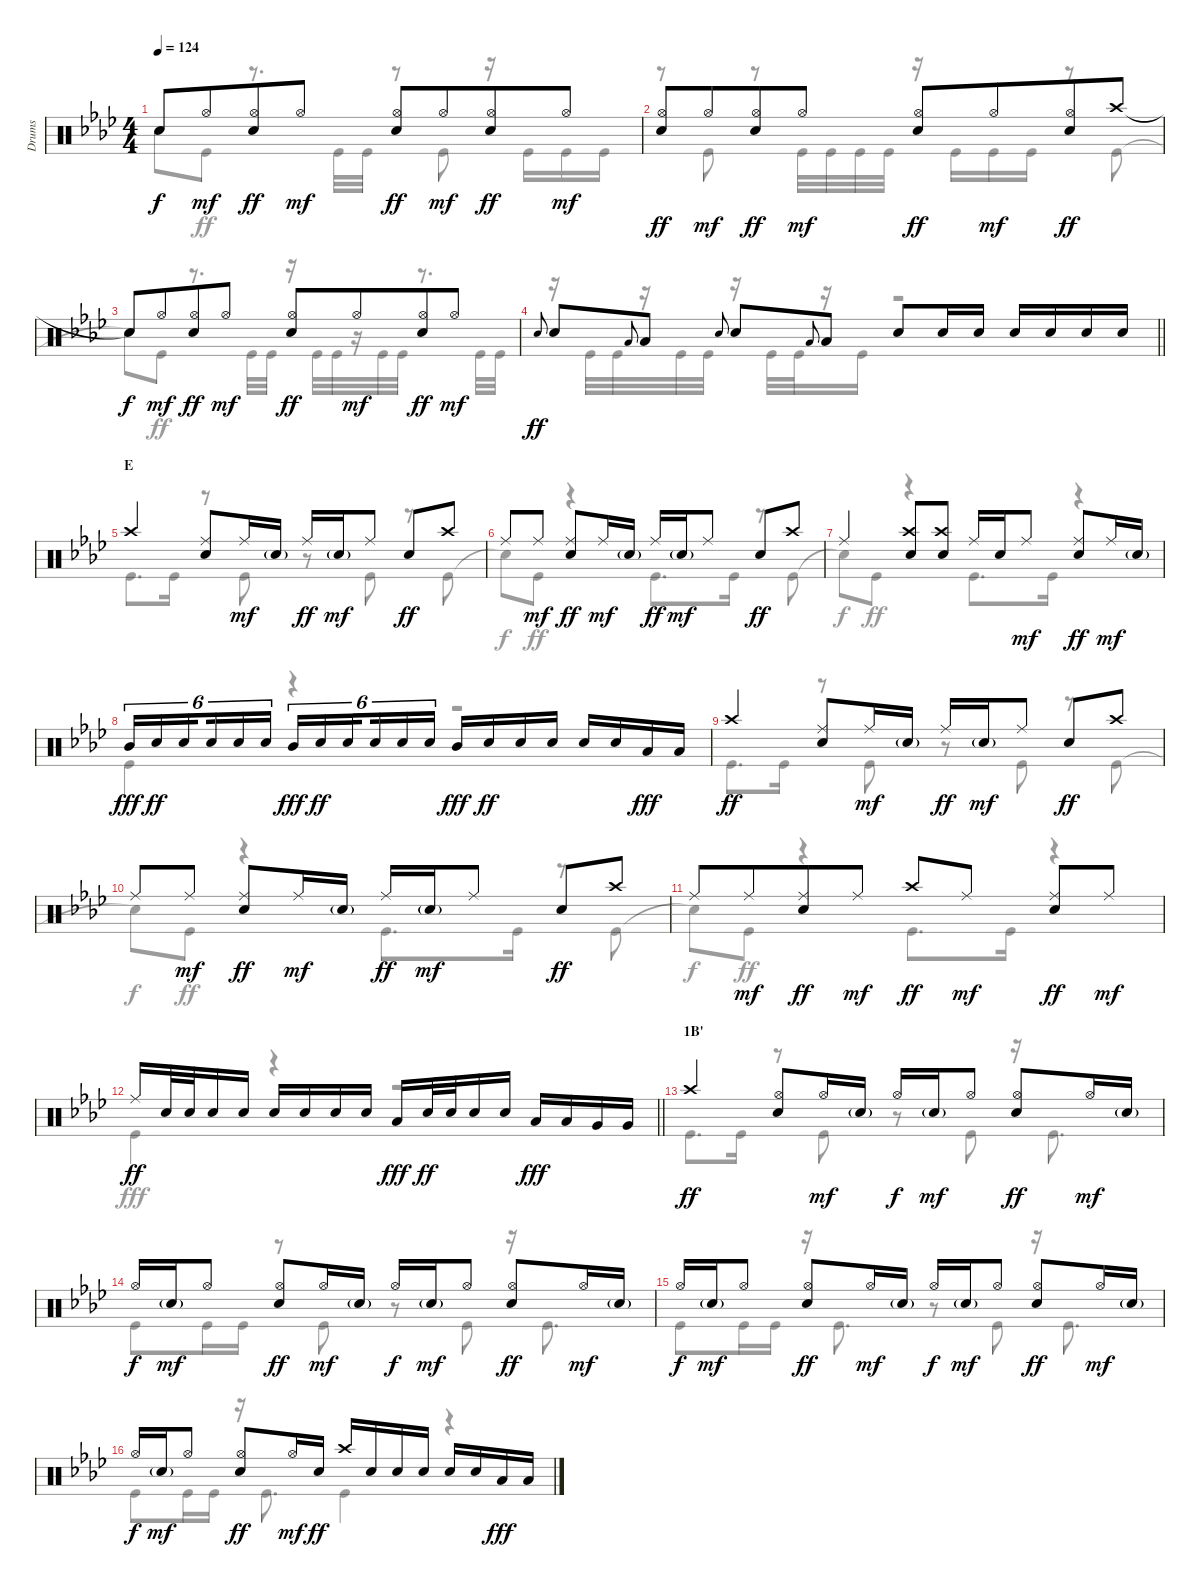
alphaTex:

\track ("Drums" "Drums") {solo instrument percussion}
\staff {score}
\articulation defaults
\voice
\ts (4 4)
\tempo 124
\clef neutral
\ks ab "Snare (hit)"{t}.8{dy f} "Hi-Hat (open)".8{dy mf beam merge}
("Hi-Hat (open)" "Electric Snare (hit)").8{dy ff} "Hi-Hat (open)".8{dy mf} ("Hi-Hat (open)" "Electric Snare (hit)").8{dy ff} "Hi-Hat (open)".8{dy mf beam merge} ("Hi-Hat (open)" "Electric Snare (hit)").8{dy ff} "Hi-Hat (open)".8{dy mf} |
("Hi-Hat (open)" "Electric Snare (hit)").8{dy ff} "Hi-Hat (open)".8{dy mf beam merge} ("Hi-Hat (open)" "Electric Snare (hit)").8{dy ff} "Hi-Hat (open)".8{dy mf} ("Hi-Hat (open)" "Electric Snare (hit)").8{dy ff} "Hi-Hat (open)".8{dy mf beam merge} ("Hi-Hat (open)" "Electric Snare (hit)").8{dy ff} "Crash high (hit)".8 |
"Snare (hit)"{t}.8{dy f} "Hi-Hat (open)".8{dy mf beam merge} ("Hi-Hat (open)" "Electric Snare (hit)").8{dy ff} "Hi-Hat (open)".8{dy mf} ("Hi-Hat (open)" "Electric Snare (hit)").8{dy ff} "Hi-Hat (open)".8{dy mf beam merge} ("Hi-Hat (open)" "Electric Snare (hit)").8{dy ff} "Hi-Hat (open)".8{dy mf} |
\barLineRight lightlight "Electric Snare (hit)".8{gr onbeat dy ff} "Electric Snare (hit)".8 "Low Tom (hit)".8{gr onbeat} "Low Tom (hit)".8 "Electric Snare (hit)".8{gr onbeat beam merge} "Electric Snare (hit)".8 "Low Tom (hit)".8{gr onbeat} "Low Tom (hit)".8 "Electric Snare (hit)".8 "Electric Snare (hit)".16 "Electric Snare (hit)".16 "Electric Snare (hit)".16 "Electric Snare (hit)".16 "Electric Snare (hit)".16 "Electric Snare (hit)".16
|
\section ("" "E")
"Crash high (hit)".4 ("Ride (middle)" "Electric Snare (hit)").8 "Ride (middle)".16{dy mf} "Electric Snare (hit)"{g}.16 "Ride (middle)".16{dy ff} "Electric Snare (hit)"{g}.16{dy mf} "Ride (middle)".8 "Electric Snare (hit)".8{dy ff} "Crash high (hit)".8 |
"Ride (middle)".8 "Ride (middle)".8{dy mf} ("Ride (middle)" "Electric Snare (hit)").8{dy ff} "Ride (middle)".16{dy mf} "Electric Snare (hit)"{g}.16 "Ride (middle)".16{dy ff} "Electric Snare (hit)"{g}.16{dy mf} "Ride (middle)".8 "Electric Snare (hit)".8{dy ff} "Crash high (hit)".8 |
"Ride (middle)".4 ("Crash high (hit)" "Electric Snare (hit)").8 ("Crash high (hit)" "Electric Snare (hit)").8 "Ride (middle)".16 "Electric Snare (hit)".16 "Ride (middle)".8{dy mf} ("Ride (middle)" "Electric Snare (hit)").8{dy ff} "Ride (middle)".16{dy mf} "Electric Snare (hit)"{g}.16 |
"Mid Tom (hit)".16{tu (6 4) dy fff} "Electric Snare (hit)".16{tu (6 4) dy ff} "Electric Snare (hit)".16{tu (6 4) beam splitsecondary} "Electric Snare (hit)".16{tu (6 4)} "Electric Snare (hit)".16{tu (6 4)} "Electric Snare (hit)".16{tu (6 4)} "Mid Tom (hit)".16{tu (6 4) dy fff} "Electric Snare (hit)".16{tu (6 4) dy ff} "Electric Snare (hit)".16{tu (6 4) beam splitsecondary} "Electric Snare (hit)".16{tu (6 4)} "Electric Snare (hit)".16{tu (6 4)} "Electric Snare (hit)".16{tu (6 4)} "Mid Tom (hit)".16{dy fff} "Electric Snare (hit)".16{dy ff} "Electric Snare (hit)".16 "Electric Snare (hit)".16 "Electric Snare (hit)".16 "Electric Snare (hit)".16 "Low Tom (hit)".16{dy fff} "Low Tom (hit)".16 |
"Crash high (hit)".4{dy ff} ("Ride (middle)" "Electric Snare (hit)").8 "Ride (middle)".16{dy mf} "Electric Snare (hit)"{g}.16 "Ride (middle)".16{dy ff} "Electric Snare (hit)"{g}.16{dy mf} "Ride (middle)".8 "Electric Snare (hit)".8{dy ff} "Crash high (hit)".8 |
"Ride (middle)".8 "Ride (middle)".8{dy mf} ("Ride (middle)" "Electric Snare (hit)").8{dy ff} "Ride (middle)".16{dy mf} "Electric Snare (hit)"{g}.16 "Ride (middle)".16{dy ff} "Electric Snare (hit)"{g}.16{dy mf} "Ride (middle)".8 "Electric Snare (hit)".8{dy ff} "Crash high (hit)".8 |
"Ride (middle)".8 "Ride (middle)".8{dy mf beam merge} ("Ride (middle)" "Electric Snare (hit)").8{dy ff} "Ride (middle)".8{dy mf} "Crash high (hit)".8{dy ff} "Ride (middle)".8{dy mf} ("Ride (middle)" "Electric Snare (hit)").8{dy ff} "Ride (middle)".8{dy mf} |
\barLineRight lightlight "Ride (middle)".16{dy ff} "Electric Snare (hit)".32 "Electric Snare (hit)".32 "Electric Snare (hit)".16 "Electric Snare (hit)".16 "Electric Snare (hit)".16 "Electric Snare (hit)".16 "Electric Snare (hit)".16 "Electric Snare (hit)".16 "Low Tom (hit)".16{dy fff} "Electric Snare (hit)".32{dy ff} "Electric Snare (hit)".32 "Electric Snare (hit)".16 "Electric Snare (hit)".16 "Low Tom (hit)".16{dy fff} "Low Tom (hit)".16 "Very Low Tom (hit)".16 "Very Low Tom (hit)".16
|
\section ("" "1B'")
"Crash high (hit)".4{dy ff} ("Hi-Hat (open)" "Electric Snare (hit)").8 "Hi-Hat (open)".16{dy mf} "Electric Snare (hit)"{g}.16 "Hi-Hat (open)".16{dy f} "Electric Snare (hit)"{g}.16{dy mf} "Hi-Hat (open)".8 ("Hi-Hat (open)" "Electric Snare (hit)").8{dy ff} "Hi-Hat (open)".16{dy mf} "Electric Snare (hit)"{g}.16 |
"Hi-Hat (open)".16{dy f} "Electric Snare (hit)"{g}.16{dy mf} "Hi-Hat (open)".8 ("Hi-Hat (open)" "Electric Snare (hit)").8{dy ff} "Hi-Hat (open)".16{dy mf} "Electric Snare (hit)"{g}.16 "Hi-Hat (open)".16{dy f} "Electric Snare (hit)"{g}.16{dy mf} "Hi-Hat (open)".8 ("Hi-Hat (open)" "Electric Snare (hit)").8{dy ff} "Hi-Hat (open)".16{dy mf} "Electric Snare (hit)"{g}.16 |
"Hi-Hat (open)".16{dy f} "Electric Snare (hit)"{g}.16{dy mf} "Hi-Hat (open)".8 ("Hi-Hat (open)" "Electric Snare (hit)").8{dy ff} "Hi-Hat (open)".16{dy mf} "Electric Snare (hit)"{g}.16 "Hi-Hat (open)".16{dy f} "Electric Snare (hit)"{g}.16{dy mf} "Hi-Hat (open)".8 ("Hi-Hat (open)" "Electric Snare (hit)").8{dy ff} "Hi-Hat (open)".16{dy mf} "Electric Snare (hit)"{g}.16 |
"Hi-Hat (open)".16{dy f} "Electric Snare (hit)"{g}.16{dy mf} "Hi-Hat (open)".8 ("Hi-Hat (open)" "Electric Snare (hit)").8{dy ff} "Hi-Hat (open)".16{dy mf} "Electric Snare (hit)".16{dy ff} "Crash high (hit)".16 "Electric Snare (hit)".16 "Electric Snare (hit)".16 "Electric Snare (hit)".16 "Electric Snare (hit)".16 "Electric Snare (hit)".16 "Low Tom (hit)".16{dy fff} "Low Tom (hit)".16
\voice
\clef neutral
\ottava regular
\simile none
\ks ab "Snare (hit)"{t}.8{dy f} "Kick (hit)".8{dy ff}
r.8{d} "Kick (hit)".32 "Kick (hit)".32 r.8 "Kick (hit)".8 r.16 "Kick (hit)".16 "Kick (hit)".16 "Kick (hit)".16 |
r.8 "Kick (hit)".8 r.8 "Kick (hit)".32 "Kick (hit)".32 "Kick (hit)".32 "Kick (hit)".32 r.16 "Kick (hit)".16 "Kick (hit)".16 "Kick (hit)".16 r.8 "Kick (hit)".8 |
"Snare (hit)"{t}.8{dy f} "Kick (hit)".8{dy ff} r.8{d} "Kick (hit)".32 "Kick (hit)".32 r.16 "Kick (hit)".32 "Kick (hit)".32 r.16 "Kick (hit)".32 "Kick (hit)".32 r.8{d} "Kick (hit)".32 "Kick (hit)".32 |
\barLineRight lightlight
r.16 "Kick (hit)".32 "Kick (hit)".32 r.16 "Kick (hit)".32 "Kick (hit)".32 r.16 "Kick (hit)".32 "Kick (hit)".32 r.16 "Kick (hit)".16 r.2 |
"Kick (hit)".8{d} "Kick (hit)".16 r.8 "Kick (hit)".8 r.8 "Kick (hit)".8 r.8 "Kick (hit)".8 |
"Snare (hit)"{t}.8{dy f} "Kick (hit)".8{dy ff} r.4 "Kick (hit)".8{d} "Kick (hit)".16 r.8 "Kick (hit)".8 |
"Snare (hit)"{t}.8{dy f} "Kick (hit)".8{dy ff} r.4 "Kick (hit)".8{d} "Kick (hit)".16 r.4 |
"Kick (hit)".4 r.4 r.2 |
"Kick (hit)".8{d} "Kick (hit)".16 r.8 "Kick (hit)".8 r.8 "Kick (hit)".8 r.8 "Kick (hit)".8 |
"Snare (hit)"{t}.8{dy f} "Kick (hit)".8{dy ff} r.4 "Kick (hit)".8{d} "Kick (hit)".16 r.8 "Kick (hit)".8 |
"Snare (hit)"{t}.8{dy f} "Kick (hit)".8{dy ff} r.4 "Kick (hit)".8{d} "Kick (hit)".16 r.4 |
\barLineRight lightlight "Kick (hit)".4{dy fff}
r.4 r.2 |
"Kick (hit)".8{d dy ff} "Kick (hit)".16 r.8 "Kick (hit)".8 r.8 "Kick (hit)".8 r.16 "Kick (hit)".8{d} |
"Kick (hit)".8 "Kick (hit)".16 "Kick (hit)".16 r.8 "Kick (hit)".8 r.8 "Kick (hit)".8 r.16 "Kick (hit)".8{d} |
"Kick (hit)".8 "Kick (hit)".16 "Kick (hit)".16 r.16 "Kick (hit)".8{d} r.8 "Kick (hit)".8 r.16 "Kick (hit)".8{d} |
"Kick (hit)".8 "Kick (hit)".16 "Kick (hit)".16 r.16 "Kick (hit)".8{d} "Kick (hit)".4 r.4
